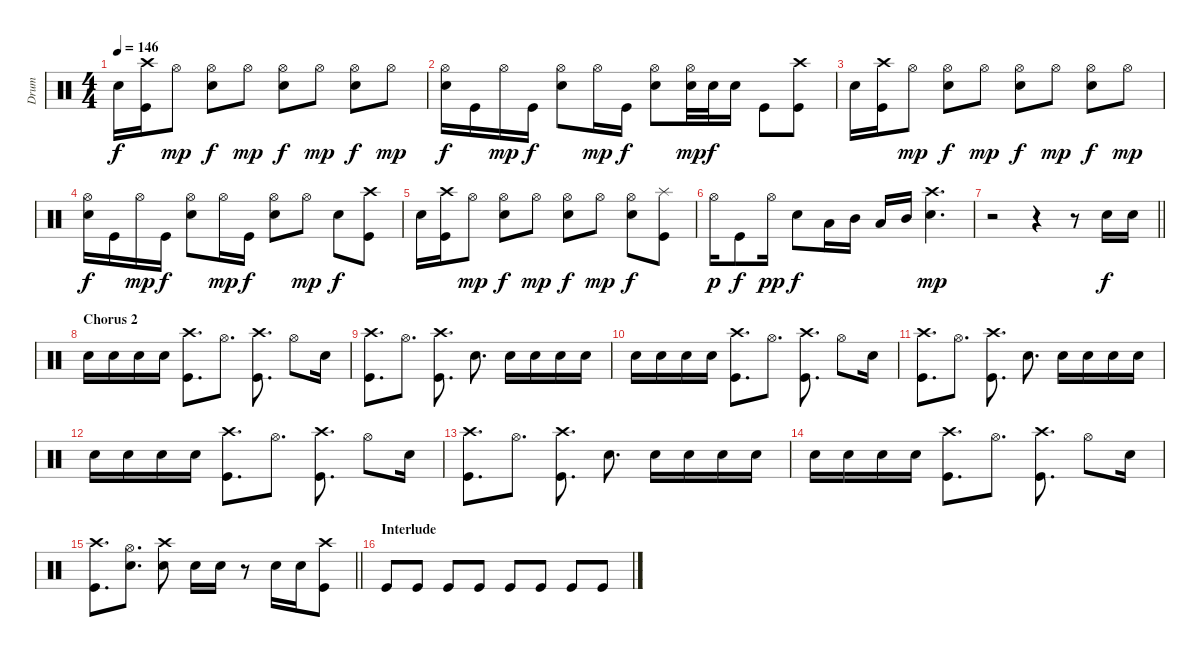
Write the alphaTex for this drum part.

\track ("Drum" "Drum") {instrument percussion}
\staff {score}
\articulation defaults
\ts (4 4)
\tempo 146
\clef neutral
\ks c "Snare (hit) 2".16{dy f}
("Crash high (hit)" "Kick (hit)").16 "Hi-Hat (open)".8{dy mp} ("Hi-Hat (open)" "Snare (hit) 2").8{dy f} "Hi-Hat (open)".8{dy mp} ("Hi-Hat (open)" "Snare (hit) 2").8{dy f} "Hi-Hat (open)".8{dy mp} ("Hi-Hat (open)" "Snare (hit) 2").8{dy f} "Hi-Hat (open)".8{dy mp} |
("Hi-Hat (open)" "Snare (hit) 2").16{dy f} "Kick (hit)".16 "Hi-Hat (open)".16{dy mp} "Kick (hit)".16{dy f} ("Hi-Hat (open)" "Snare (hit) 2").8 "Hi-Hat (open)".16{dy mp} "Kick (hit)".16{dy f} ("Hi-Hat (open)" "Snare (hit) 2").8 ("Hi-Hat (open)" "Snare (hit) 2").32{dy mp} "Snare (hit) 2".32{dy f} "Snare (hit) 2".16 "Kick (hit)".8 ("Crash high (hit)" "Kick (hit)").8 |
"Snare (hit) 2".16 ("Crash high (hit)" "Kick (hit)").16 "Hi-Hat (open)".8{dy mp} ("Hi-Hat (open)" "Snare (hit) 2").8{dy f} "Hi-Hat (open)".8{dy mp} ("Hi-Hat (open)" "Snare (hit) 2").8{dy f} "Hi-Hat (open)".8{dy mp} ("Hi-Hat (open)" "Snare (hit) 2").8{dy f} "Hi-Hat (open)".8{dy mp} |
("Hi-Hat (open)" "Snare (hit) 2").16{dy f} "Kick (hit)".16 "Hi-Hat (open)".16{dy mp} "Kick (hit)".16{dy f} ("Hi-Hat (open)" "Snare (hit) 2").8 "Hi-Hat (open)".16{dy mp} "Kick (hit)".16{dy f} ("Hi-Hat (open)" "Snare (hit) 2").8 "Hi-Hat (open)".8{dy mp} "Snare (hit) 2".8{dy f} ("Crash high (hit)" "Kick (hit)").8 |
"Snare (hit) 2".16 ("Crash high (hit)" "Kick (hit)").16 "Hi-Hat (open)".8{dy mp} ("Hi-Hat (open)" "Snare (hit) 2").8{dy f} "Hi-Hat (open)".8{dy mp} ("Hi-Hat (open)" "Snare (hit) 2").8{dy f} "Hi-Hat (open)".8{dy mp} ("Hi-Hat (open)" "Snare (hit) 2").8{dy f} ("Splash (hit)" "Kick (hit)").8 |
"Hi-Hat (open)".16{dy p} "Kick (hit)".8{dy f} "Hi-Hat (open)".16{dy pp} "Snare (hit) 2".8{dy f} "Low Tom (hit)".16 "Mid Tom (hit)".16 "Low Tom (hit)".16 "Mid Tom (hit)".16 ("Crash high (hit)" "Snare (hit) 2").4{d dy mp} |
\barLineRight lightlight
r.2 r.4 r.8 "Snare (hit) 2".16{dy f} "Snare (hit) 2".16 |
\section ("" "Chorus 2")
"Snare (hit) 2".16 "Snare (hit) 2".16 "Snare (hit) 2".16 "Snare (hit) 2".16 ("Crash high (hit)" "Kick (hit)").8{d} "Hi-Hat (open)".8{d} ("Crash high (hit)" "Kick (hit)").8{d} "Hi-Hat (open)".8 "Snare (hit) 2".16 |
("Crash high (hit)" "Kick (hit)").8{d} "Hi-Hat (open)".8{d} ("Crash high (hit)" "Kick (hit)").8{d} "Snare (hit) 2".8{d} "Snare (hit) 2".16 "Snare (hit) 2".16 "Snare (hit) 2".16 "Snare (hit) 2".16 |
"Snare (hit) 2".16 "Snare (hit) 2".16 "Snare (hit) 2".16 "Snare (hit) 2".16 ("Crash high (hit)" "Kick (hit)").8{d} "Hi-Hat (open)".8{d} ("Crash high (hit)" "Kick (hit)").8{d} "Hi-Hat (open)".8 "Snare (hit) 2".16 |
("Crash high (hit)" "Kick (hit)").8{d} "Hi-Hat (open)".8{d} ("Crash high (hit)" "Kick (hit)").8{d} "Snare (hit) 2".8{d} "Snare (hit) 2".16 "Snare (hit) 2".16 "Snare (hit) 2".16 "Snare (hit) 2".16 |
"Snare (hit) 2".16 "Snare (hit) 2".16 "Snare (hit) 2".16 "Snare (hit) 2".16 ("Crash high (hit)" "Kick (hit)").8{d} "Hi-Hat (open)".8{d} ("Crash high (hit)" "Kick (hit)").8{d} "Hi-Hat (open)".8 "Snare (hit) 2".16 |
("Crash high (hit)" "Kick (hit)").8{d} "Hi-Hat (open)".8{d} ("Crash high (hit)" "Kick (hit)").8{d} "Snare (hit) 2".8{d} "Snare (hit) 2".16 "Snare (hit) 2".16 "Snare (hit) 2".16 "Snare (hit) 2".16 |
"Snare (hit) 2".16 "Snare (hit) 2".16 "Snare (hit) 2".16 "Snare (hit) 2".16 ("Crash high (hit)" "Kick (hit)").8{d} "Hi-Hat (open)".8{d} ("Crash high (hit)" "Kick (hit)").8{d} "Hi-Hat (open)".8 "Snare (hit) 2".16 |
\barLineRight lightlight
("Crash high (hit)" "Kick (hit)").8{d} ("Hi-Hat (open)" "Snare (hit) 2").8{d} ("Crash high (hit)" "Snare (hit) 2").8 "Snare (hit) 2".16 "Snare (hit) 2".16 r.8 "Snare (hit) 2".16 "Snare (hit) 2".16 ("Crash high (hit)" "Kick (hit)").8 |
\section ("" "Interlude")
"Kick (hit)".8 "Kick (hit)".8 "Kick (hit)".8 "Kick (hit)".8 "Kick (hit)".8 "Kick (hit)".8 "Kick (hit)".8 "Kick (hit)".8
